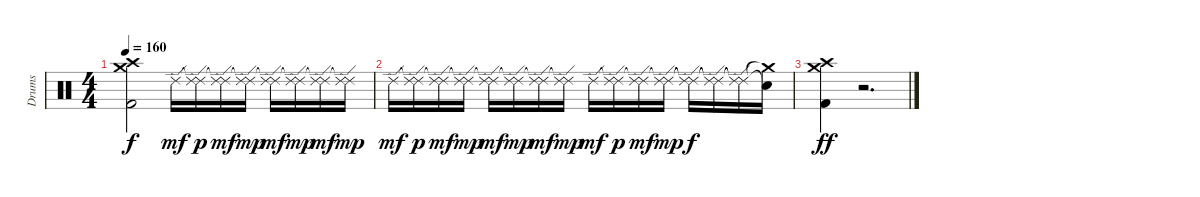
\track ("Drums" "Drums") {instrument percussion}
\staff {score}
\articulation defaults
\ts (4 4)
\tempo 160
\clef neutral
\ks aminor
("Crash medium (hit)" "Crash high (hit)" "Kick (hit) 2").2{dy f} "Ride (edge) 2".16{dy mf} ("Ride (edge) 2"{t} "Ride (edge) 2").16{dy p} ("Ride (edge) 2" "Ride (edge) 2"{t}).16{dy mf} ("Ride (edge) 2"{t} "Ride (edge) 2").16{dy mp} ("Ride (edge) 2" "Ride (edge) 2"{t}).16{dy mf} ("Ride (edge) 2"{t} "Ride (edge) 2").16{dy mp} ("Ride (edge) 2" "Ride (edge) 2"{t}).16{dy mf} ("Ride (edge) 2"{t} "Ride (edge) 2").16{dy mp} |
"Ride (edge) 2".16{dy mf} ("Ride (edge) 2"{t} "Ride (edge) 2").16{dy p} ("Ride (edge) 2" "Ride (edge) 2"{t}).16{dy mf} ("Ride (edge) 2"{t} "Ride (edge) 2").16{dy mp} ("Ride (edge) 2" "Ride (edge) 2"{t}).16{dy mf} ("Ride (edge) 2"{t} "Ride (edge) 2").16{dy mp} ("Ride (edge) 2" "Ride (edge) 2"{t}).16{dy mf} ("Ride (edge) 2"{t} "Ride (edge) 2").16{dy mp} "Ride (edge) 2".16{dy mf} ("Ride (edge) 2"{t} "Ride (edge) 2").16{dy p} ("Ride (edge) 2" "Ride (edge) 2"{t}).16{dy mf} ("Ride (edge) 2"{t} "Ride (edge) 2").16{dy mp} ("Ride (edge) 2"{t} "Ride (edge) 2"{t}).16{dy f} ("Ride (edge) 2"{t} "Ride (edge) 2"{t}).16 ("Ride (edge) 2"{t} "Ride (edge) 2"{t}).16 ("Crash medium (hit)"{t} "Snare (hit)"{t}).16 |
("Crash high (hit)" "Crash medium (hit)" "Kick (hit) 2").4{dy ff} r.2{d}
